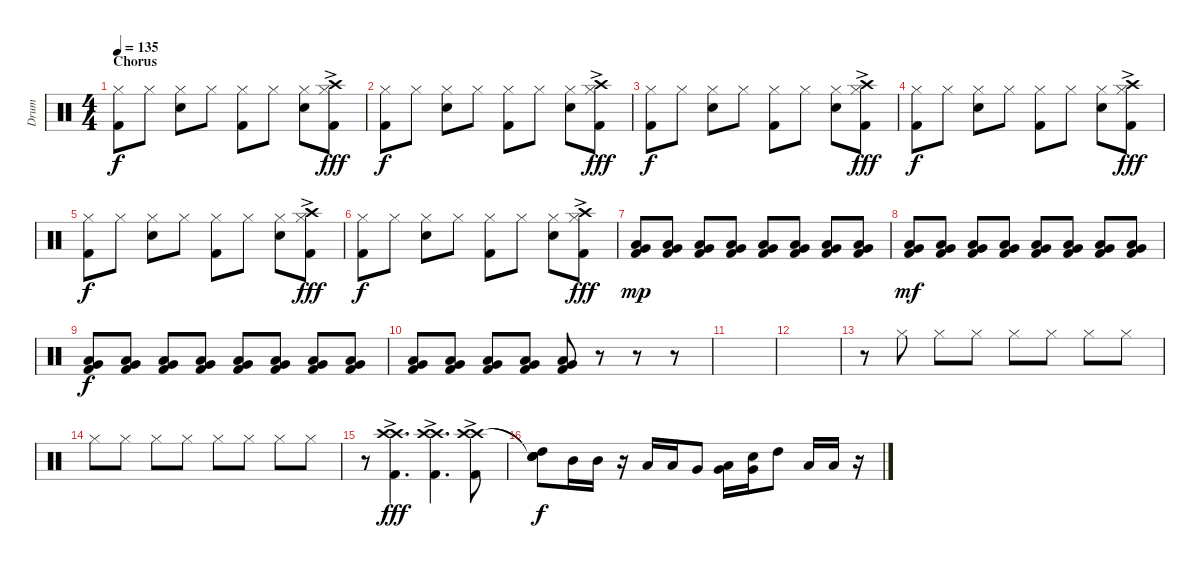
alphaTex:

\track ("Drum" "Drum") {instrument percussion}
\staff {score}
\articulation defaults
\ts (4 4)
\section ("" "Chorus")
\tempo 135
\clef neutral
\ks c
("Hi-Hat (closed)" "Kick (hit) 2").8{dy f} "Hi-Hat (closed)".8 ("Snare (hit) 2" "Hi-Hat (closed)").8 "Hi-Hat (closed)".8 ("Hi-Hat (closed)" "Kick (hit) 2").8 "Hi-Hat (closed)".8 ("Snare (hit) 2" "Hi-Hat (closed)").8 ("Crash high (hit)"{ac} "Hi-Hat (closed)" "Kick (hit) 2").8{dy fff} |
("Hi-Hat (closed)" "Kick (hit) 2").8{dy f} "Hi-Hat (closed)".8 ("Snare (hit) 2" "Hi-Hat (closed)").8 "Hi-Hat (closed)".8 ("Hi-Hat (closed)" "Kick (hit) 2").8 "Hi-Hat (closed)".8 ("Snare (hit) 2" "Hi-Hat (closed)").8 ("Crash high (hit)"{ac} "Hi-Hat (closed)" "Kick (hit) 2").8{dy fff} |
("Hi-Hat (closed)" "Kick (hit) 2").8{dy f} "Hi-Hat (closed)".8 ("Snare (hit) 2" "Hi-Hat (closed)").8 "Hi-Hat (closed)".8 ("Hi-Hat (closed)" "Kick (hit) 2").8 "Hi-Hat (closed)".8 ("Snare (hit) 2" "Hi-Hat (closed)").8 ("Crash high (hit)"{ac} "Hi-Hat (closed)" "Kick (hit) 2").8{dy fff} |
("Hi-Hat (closed)" "Kick (hit) 2").8{dy f} "Hi-Hat (closed)".8 ("Snare (hit) 2" "Hi-Hat (closed)").8 "Hi-Hat (closed)".8 ("Hi-Hat (closed)" "Kick (hit) 2").8 "Hi-Hat (closed)".8 ("Snare (hit) 2" "Hi-Hat (closed)").8 ("Crash high (hit)"{ac} "Hi-Hat (closed)" "Kick (hit) 2").8{dy fff} |
("Hi-Hat (closed)" "Kick (hit) 2").8{dy f} "Hi-Hat (closed)".8 ("Snare (hit) 2" "Hi-Hat (closed)").8 "Hi-Hat (closed)".8 ("Hi-Hat (closed)" "Kick (hit) 2").8 "Hi-Hat (closed)".8 ("Snare (hit) 2" "Hi-Hat (closed)").8 ("Crash high (hit)"{ac} "Hi-Hat (closed)" "Kick (hit) 2").8{dy fff} |
("Hi-Hat (closed)" "Kick (hit) 2").8{dy f} "Hi-Hat (closed)".8 ("Snare (hit) 2" "Hi-Hat (closed)").8 "Hi-Hat (closed)".8 ("Hi-Hat (closed)" "Kick (hit) 2").8 "Hi-Hat (closed)".8 ("Snare (hit) 2" "Hi-Hat (closed)").8 ("Crash high (hit)"{ac} "Hi-Hat (closed)" "Kick (hit) 2").8{dy fff} |
("Very Low Tom (hit)" "Low Floor Tom (hit)" "Kick (hit) 2").8{dy mp} ("Very Low Tom (hit)" "Low Floor Tom (hit)" "Kick (hit) 2").8 ("Very Low Tom (hit)" "Low Floor Tom (hit)" "Kick (hit) 2").8 ("Very Low Tom (hit)" "Low Floor Tom (hit)" "Kick (hit) 2").8 ("Very Low Tom (hit)" "Low Floor Tom (hit)" "Kick (hit) 2").8 ("Very Low Tom (hit)" "Low Floor Tom (hit)" "Kick (hit) 2").8 ("Very Low Tom (hit)" "Low Floor Tom (hit)" "Kick (hit) 2").8 ("Very Low Tom (hit)" "Low Floor Tom (hit)" "Kick (hit) 2").8 |
("Very Low Tom (hit)" "Low Floor Tom (hit)" "Kick (hit) 2").8{dy mf} ("Very Low Tom (hit)" "Low Floor Tom (hit)" "Kick (hit) 2").8 ("Very Low Tom (hit)" "Low Floor Tom (hit)" "Kick (hit) 2").8 ("Very Low Tom (hit)" "Low Floor Tom (hit)" "Kick (hit) 2").8 ("Very Low Tom (hit)" "Low Floor Tom (hit)" "Kick (hit) 2").8 ("Very Low Tom (hit)" "Low Floor Tom (hit)" "Kick (hit) 2").8 ("Very Low Tom (hit)" "Low Floor Tom (hit)" "Kick (hit) 2").8 ("Very Low Tom (hit)" "Low Floor Tom (hit)" "Kick (hit) 2").8 |
("Very Low Tom (hit)" "Low Floor Tom (hit)" "Kick (hit) 2").8{dy f} ("Very Low Tom (hit)" "Low Floor Tom (hit)" "Kick (hit) 2").8 ("Very Low Tom (hit)" "Low Floor Tom (hit)" "Kick (hit) 2").8 ("Very Low Tom (hit)" "Low Floor Tom (hit)" "Kick (hit) 2").8 ("Very Low Tom (hit)" "Low Floor Tom (hit)" "Kick (hit) 2").8 ("Very Low Tom (hit)" "Low Floor Tom (hit)" "Kick (hit) 2").8 ("Very Low Tom (hit)" "Low Floor Tom (hit)" "Kick (hit) 2").8 ("Very Low Tom (hit)" "Low Floor Tom (hit)" "Kick (hit) 2").8 |
("Very Low Tom (hit)" "Low Floor Tom (hit)" "Kick (hit) 2").8 ("Very Low Tom (hit)" "Low Floor Tom (hit)" "Kick (hit) 2").8 ("Very Low Tom (hit)" "Low Floor Tom (hit)" "Kick (hit) 2").8 ("Very Low Tom (hit)" "Low Floor Tom (hit)" "Kick (hit) 2").8 ("Very Low Tom (hit)" "Low Floor Tom (hit)" "Kick (hit) 2").8 r.8 r.8 r.8 |
|
|
r.8 "Hi-Hat (closed)".8 "Hi-Hat (closed)".8 "Hi-Hat (closed)".8 "Hi-Hat (closed)".8 "Hi-Hat (closed)".8 "Hi-Hat (closed)".8 "Hi-Hat (closed)".8 |
"Hi-Hat (closed)".8 "Hi-Hat (closed)".8 "Hi-Hat (closed)".8 "Hi-Hat (closed)".8 "Hi-Hat (closed)".8 "Hi-Hat (closed)".8 "Hi-Hat (closed)".8 "Hi-Hat (closed)".8 |
r.8 ("Crash high (hit)"{ac} "Crash high (hit)"{ac} "Kick (hit) 2"{ac}).4{d dy fff} ("Crash high (hit)"{ac} "Crash high (hit)"{ac} "Kick (hit) 2"{ac}).4{d} ("Crash high (hit)"{ac} "Crash high (hit)"{ac} "Kick (hit) 2"{ac}).8 |
("Snare (hit)"{t} "Snare (hit)"{t} "High Tom (hit)" "Snare (hit)").8{dy f} "Mid Tom (hit)".16 "Mid Tom (hit)".16 r.16 "Low Tom (hit)".16 "Low Tom (hit)".16 "Very Low Tom (hit)".8 ("Low Floor Tom (hit)" "Very Low Tom (hit)").16 ("Electric Snare (hit)" "Very Low Tom (hit)").16 "High Tom (hit)".8 "Low Floor Tom (hit)".16 "Low Floor Tom (hit)".16 r.16
